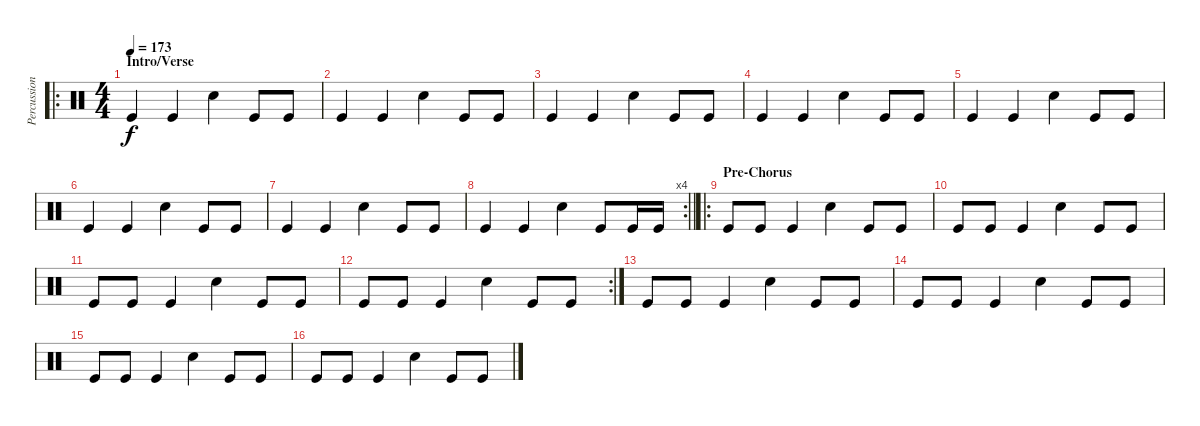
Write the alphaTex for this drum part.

\track ("Percussion" "Percussion") {instrument percussion}
\staff {score}
\articulation defaults
\ro
\ts (4 4)
\section ("" "Intro/Verse")
\tempo 173
\clef neutral
\ks c "Kick (hit)".4{dy f} "Kick (hit)".4 "Hand Clap (hit)".4 "Kick (hit)".8 "Kick (hit)".8
|
"Kick (hit)".4 "Kick (hit)".4 "Hand Clap (hit)".4 "Kick (hit)".8 "Kick (hit)".8 |
"Kick (hit)".4 "Kick (hit)".4 "Hand Clap (hit)".4 "Kick (hit)".8 "Kick (hit)".8 |
"Kick (hit)".4 "Kick (hit)".4 "Hand Clap (hit)".4 "Kick (hit)".8 "Kick (hit)".8 |
"Kick (hit)".4 "Kick (hit)".4 "Hand Clap (hit)".4 "Kick (hit)".8 "Kick (hit)".8 |
"Kick (hit)".4 "Kick (hit)".4 "Hand Clap (hit)".4 "Kick (hit)".8 "Kick (hit)".8 |
"Kick (hit)".4 "Kick (hit)".4 "Hand Clap (hit)".4 "Kick (hit)".8 "Kick (hit)".8 |
\rc 4
\barLineRight lightlight "Kick (hit)".4 "Kick (hit)".4 "Hand Clap (hit)".4 "Kick (hit)".8 "Kick (hit)".16 "Kick (hit)".16
|
\ro
\section ("" "Pre-Chorus")
"Kick (hit)".8 "Kick (hit)".8 "Kick (hit)".4 "Hand Clap (hit)".4 "Kick (hit)".8 "Kick (hit)".8 |
"Kick (hit)".8 "Kick (hit)".8 "Kick (hit)".4 "Hand Clap (hit)".4 "Kick (hit)".8 "Kick (hit)".8 |
"Kick (hit)".8 "Kick (hit)".8 "Kick (hit)".4 "Hand Clap (hit)".4 "Kick (hit)".8 "Kick (hit)".8 |
\rc 2 "Kick (hit)".8 "Kick (hit)".8 "Kick (hit)".4 "Hand Clap (hit)".4 "Kick (hit)".8 "Kick (hit)".8
|
"Kick (hit)".8 "Kick (hit)".8 "Kick (hit)".4 "Hand Clap (hit)".4 "Kick (hit)".8 "Kick (hit)".8 |
"Kick (hit)".8 "Kick (hit)".8 "Kick (hit)".4 "Hand Clap (hit)".4 "Kick (hit)".8 "Kick (hit)".8 |
"Kick (hit)".8 "Kick (hit)".8 "Kick (hit)".4 "Hand Clap (hit)".4 "Kick (hit)".8 "Kick (hit)".8 |
"Kick (hit)".8 "Kick (hit)".8 "Kick (hit)".4 "Hand Clap (hit)".4 "Kick (hit)".8 "Kick (hit)".8
